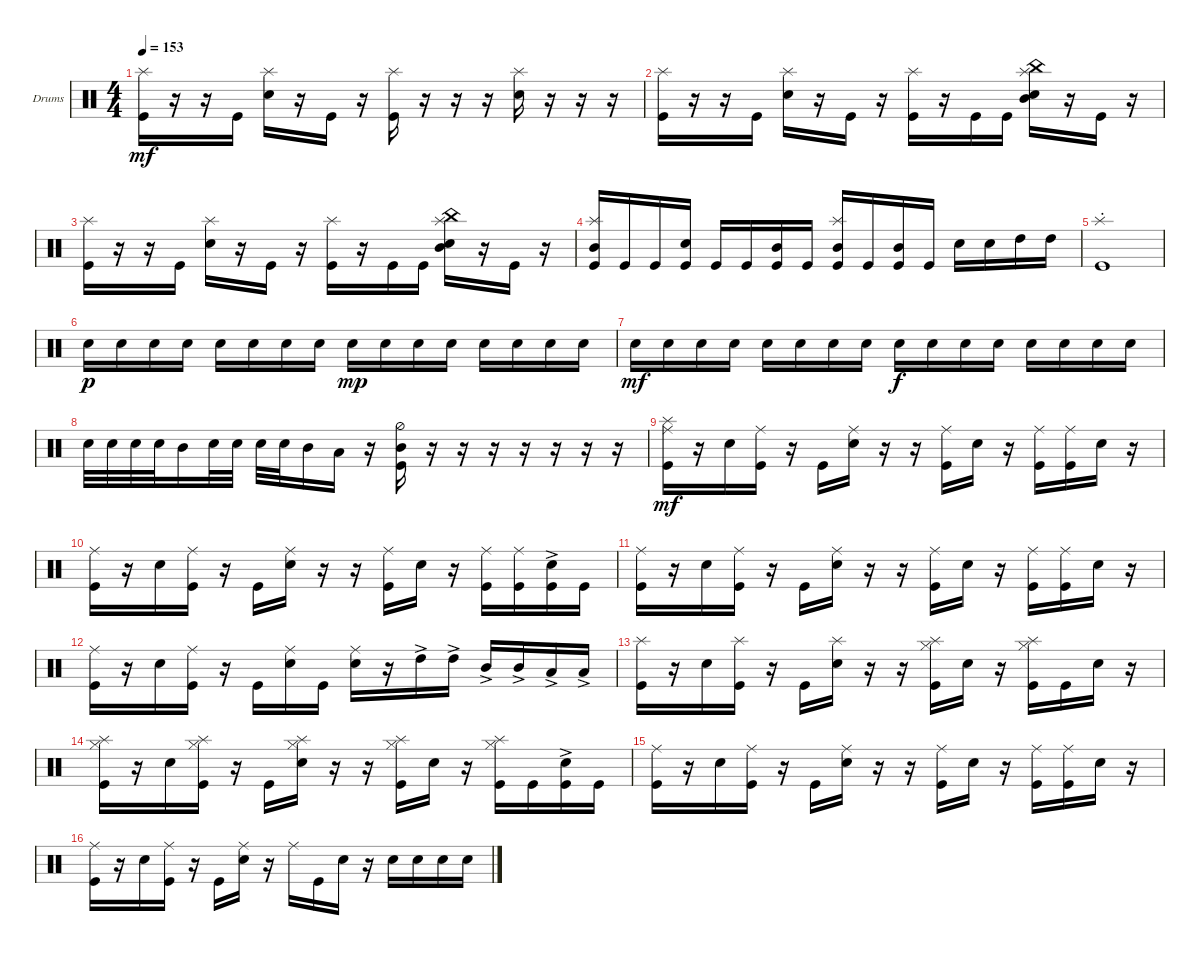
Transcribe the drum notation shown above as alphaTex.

\bracketExtendMode groupsimilarinstruments
\firstSystemTrackNameOrientation horizontal
\otherSystemsTrackNameOrientation horizontal
\track ("Drumkit" "Drums") {instrument percussion}
\staff {score}
\articulation defaults
\ts (4 4)
\tempo 153
\clef neutral
\ks c
("Kick (hit)" "Splash (hit)").16{dy mf} r.16 r.16 "Kick (hit)".16 ("Snare (hit) 2" "Splash (hit)").16 r.16 "Kick (hit)".16 r.16 ("Kick (hit)" "Splash (hit)").16 r.16 r.16 r.16 ("Snare (hit) 2" "Splash (hit)").16 r.16 r.16 r.16 |
("Kick (hit)" "Splash (hit)").16 r.16 r.16 "Kick (hit)".16 ("Snare (hit) 2" "Splash (hit)").16 r.16 "Kick (hit)".16 r.16 ("Kick (hit)" "Splash (hit)").16 r.16 "Kick (hit)".16 "Kick (hit)".16 ("Snare (hit) 2" "Mid Tom (hit)" "Splash (hit)" "China (hit)").16 r.16 "Kick (hit)".16 r.16 |
("Kick (hit)" "Splash (hit)").16 r.16 r.16 "Kick (hit)".16 ("Snare (hit) 2" "Splash (hit)").16 r.16 "Kick (hit)".16 r.16 ("Kick (hit)" "Splash (hit)").16 r.16 "Kick (hit)".16 "Kick (hit)".16 ("Snare (hit) 2" "Mid Tom (hit)" "Splash (hit)" "China (hit)").16 r.16 "Kick (hit)".16 r.16 |
("Kick (hit)" "Mid Tom (hit)" "Splash (hit)").16 "Kick (hit)".16 "Kick (hit)".16 ("Snare (hit) 2" "Kick (hit)").16 "Kick (hit)".16 "Kick (hit)".16 ("Kick (hit)" "Mid Tom (hit)").16 "Kick (hit)".16 ("Kick (hit)" "Mid Tom (hit)" "Splash (hit)").16 "Kick (hit)".16 ("Kick (hit)" "Mid Tom (hit)").16 "Kick (hit)".16 "Snare (hit) 2".16 "Snare (hit) 2".16 "High Tom (hit)".16 "High Tom (hit)".16 |
("Kick (hit)" "Splash (hit)"{st}).1 |
"Snare (hit) 2".16{dy p} "Snare (hit) 2".16 "Snare (hit) 2".16 "Snare (hit) 2".16 "Snare (hit) 2".16 "Snare (hit) 2".16 "Snare (hit) 2".16 "Snare (hit) 2".16 "Snare (hit) 2".16{dy mp} "Snare (hit) 2".16 "Snare (hit) 2".16 "Snare (hit) 2".16 "Snare (hit) 2".16 "Snare (hit) 2".16 "Snare (hit) 2".16 "Snare (hit) 2".16 |
"Snare (hit) 2".16{dy mf} "Snare (hit) 2".16 "Snare (hit) 2".16 "Snare (hit) 2".16 "Snare (hit) 2".16 "Snare (hit) 2".16 "Snare (hit) 2".16 "Snare (hit) 2".16 "Snare (hit) 2".16{dy f} "Snare (hit) 2".16 "Snare (hit) 2".16 "Snare (hit) 2".16 "Snare (hit) 2".16 "Snare (hit) 2".16 "Snare (hit) 2".16 "Snare (hit) 2".16 |
"Snare (hit) 2".32 "Snare (hit) 2".32 "Snare (hit) 2".32 "Snare (hit) 2".32 "Mid Tom (hit)".16 "Snare (hit) 2".32 "Snare (hit) 2".32 "Snare (hit) 2".32 "Snare (hit) 2".32 "Mid Tom (hit)".16 "Low Tom (hit)".16 r.16 ("Kick (hit)" "Mid Tom (hit)" "Hi-Hat (half)").16 r.16 r.16 r.16 r.16 r.16 r.16 r.16 |
("Kick (hit)" "Ride (middle)" "Splash (hit)").16{dy mf} r.16 "Snare (hit) 2".16 ("Kick (hit)" "Ride (middle)").16 r.16 "Kick (hit)".16 ("Snare (hit) 2" "Ride (middle)").16 r.16 r.16 ("Kick (hit)" "Ride (middle)").16 "Snare (hit) 2".16 r.16 ("Kick (hit)" "Ride (middle)").16 ("Kick (hit)" "Ride (middle)").16 "Snare (hit) 2".16 r.16 |
("Kick (hit)" "Ride (middle)").16 r.16 "Snare (hit) 2".16 ("Kick (hit)" "Ride (middle)").16 r.16 "Kick (hit)".16 ("Snare (hit) 2" "Ride (middle)").16 r.16 r.16 ("Kick (hit)" "Ride (middle)").16 "Snare (hit) 2".16 r.16 ("Kick (hit)" "Ride (middle)").16 ("Kick (hit)" "Ride (middle)").16 ("Snare (hit) 2"{ac} "Kick (hit)").16 "Kick (hit)".16 |
("Kick (hit)" "Ride (middle)").16 r.16 "Snare (hit) 2".16 ("Kick (hit)" "Ride (middle)").16 r.16 "Kick (hit)".16 ("Snare (hit) 2" "Ride (middle)").16 r.16 r.16 ("Kick (hit)" "Ride (middle)").16 "Snare (hit) 2".16 r.16 ("Kick (hit)" "Ride (middle)").16 ("Kick (hit)" "Ride (middle)").16 "Snare (hit) 2".16 r.16 |
("Kick (hit)" "Ride (middle)").16 r.16 "Snare (hit) 2".16 ("Kick (hit)" "Ride (middle)").16 r.16 "Kick (hit)".16 ("Snare (hit) 2" "Ride (middle)").16 "Kick (hit)".16 ("Snare (hit) 2" "Ride (middle)").16 r.16 "High Tom (hit)"{ac}.16 "High Tom (hit)"{ac}.16 "Mid Tom (hit)"{ac}.16 "Mid Tom (hit)"{ac}.16 "Low Tom (hit)"{ac}.16 "Low Tom (hit)"{ac}.16 |
("Kick (hit)" "Splash (hit)").16 r.16 "Snare (hit) 2".16 ("Kick (hit)" "Splash (hit)").16 r.16 "Kick (hit)".16 ("Snare (hit) 2" "Splash (hit)").16 r.16 r.16 ("Kick (hit)" "Hi-Hat (closed)" "Splash (hit)").16 "Snare (hit) 2".16 r.16 ("Kick (hit)" "Hi-Hat (closed)" "Splash (hit)").16 "Kick (hit)".16 "Snare (hit) 2".16 r.16 |
("Kick (hit)" "Hi-Hat (closed)" "Splash (hit)").16 r.16 "Snare (hit) 2".16 ("Kick (hit)" "Hi-Hat (closed)" "Splash (hit)").16 r.16 "Kick (hit)".16 ("Snare (hit) 2" "Hi-Hat (closed)" "Splash (hit)").16 r.16 r.16 ("Kick (hit)" "Hi-Hat (closed)" "Splash (hit)").16 "Snare (hit) 2".16 r.16 ("Kick (hit)" "Hi-Hat (closed)" "Splash (hit)").16 "Kick (hit)".16 ("Snare (hit) 2"{ac} "Kick (hit)").16 "Kick (hit)".16 |
("Kick (hit)" "Ride (middle)").16 r.16 "Snare (hit) 2".16 ("Kick (hit)" "Ride (middle)").16 r.16 "Kick (hit)".16 ("Snare (hit) 2" "Ride (middle)").16 r.16 r.16 ("Kick (hit)" "Ride (middle)").16 "Snare (hit) 2".16 r.16 ("Kick (hit)" "Ride (middle)").16 ("Kick (hit)" "Ride (middle)").16 "Snare (hit) 2".16 r.16 |
("Kick (hit)" "Ride (middle)").16 r.16 "Snare (hit) 2".16 ("Kick (hit)" "Ride (middle)").16 r.16 "Kick (hit)".16 ("Snare (hit) 2" "Ride (middle)").16 r.16 "Ride (middle)".16 "Kick (hit)".16 "Snare (hit) 2".16 r.16 "Snare (hit) 2".16 "Snare (hit) 2".16 "Snare (hit) 2".16 "Snare (hit) 2".16
